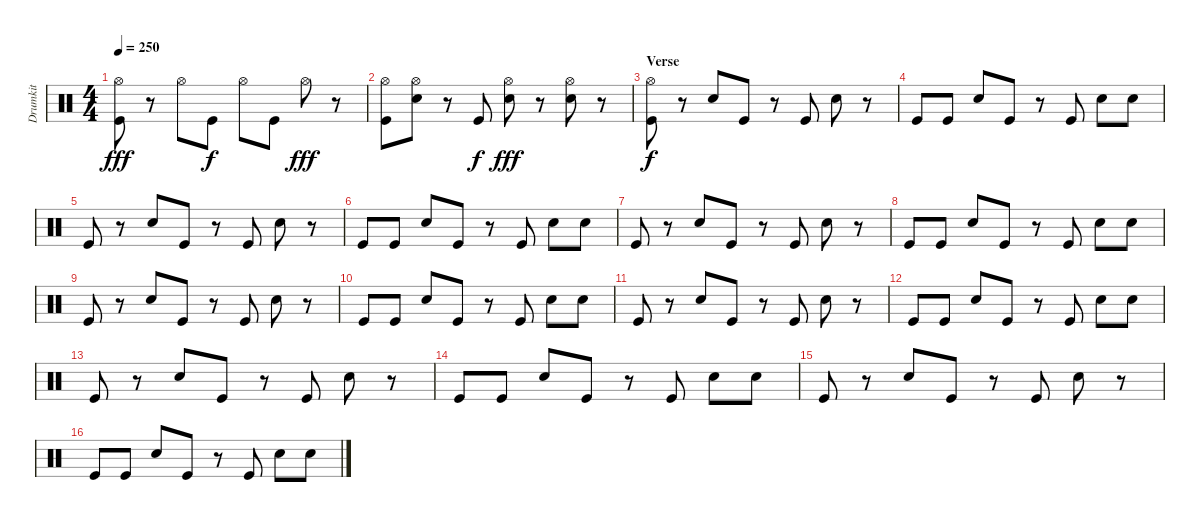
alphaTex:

\track ("Drumkit" "Drumkit") {instrument percussion}
\staff {score}
\articulation defaults
\ts (4 4)
\tempo 250
\clef neutral
\ks c
("Hi-Hat (open)" "Kick (hit)").8{dy fff} r.8 "Hi-Hat (open)".8 "Kick (hit)".8{dy f} "Hi-Hat (open)".8 "Kick (hit)".8 "Hi-Hat (open)".8{dy fff} r.8 |
("Hi-Hat (open)" "Kick (hit)").8 ("Hi-Hat (open)" "Snare (hit) 2").8 r.8 "Kick (hit)".8{dy f} ("Hi-Hat (open)" "Snare (hit) 2").8{dy fff} r.8 ("Hi-Hat (open)" "Snare (hit) 2").8 r.8 |
\section ("" "Verse")
("Hi-Hat (open)" "Kick (hit)").8{dy f} r.8 "Snare (hit) 2".8 "Kick (hit)".8 r.8 "Kick (hit)".8 "Snare (hit) 2".8 r.8 |
"Kick (hit)".8 "Kick (hit)".8 "Snare (hit) 2".8 "Kick (hit)".8 r.8 "Kick (hit)".8 "Snare (hit) 2".8 "Snare (hit) 2".8 |
"Kick (hit)".8 r.8 "Snare (hit) 2".8 "Kick (hit)".8 r.8 "Kick (hit)".8 "Snare (hit) 2".8 r.8 |
"Kick (hit)".8 "Kick (hit)".8 "Snare (hit) 2".8 "Kick (hit)".8 r.8 "Kick (hit)".8 "Snare (hit) 2".8 "Snare (hit) 2".8 |
"Kick (hit)".8 r.8 "Snare (hit) 2".8 "Kick (hit)".8 r.8 "Kick (hit)".8 "Snare (hit) 2".8 r.8 |
"Kick (hit)".8 "Kick (hit)".8 "Snare (hit) 2".8 "Kick (hit)".8 r.8 "Kick (hit)".8 "Snare (hit) 2".8 "Snare (hit) 2".8 |
"Kick (hit)".8 r.8 "Snare (hit) 2".8 "Kick (hit)".8 r.8 "Kick (hit)".8 "Snare (hit) 2".8 r.8 |
"Kick (hit)".8 "Kick (hit)".8 "Snare (hit) 2".8 "Kick (hit)".8 r.8 "Kick (hit)".8 "Snare (hit) 2".8 "Snare (hit) 2".8 |
"Kick (hit)".8 r.8 "Snare (hit) 2".8 "Kick (hit)".8 r.8 "Kick (hit)".8 "Snare (hit) 2".8 r.8 |
"Kick (hit)".8 "Kick (hit)".8 "Snare (hit) 2".8 "Kick (hit)".8 r.8 "Kick (hit)".8 "Snare (hit) 2".8 "Snare (hit) 2".8 |
"Kick (hit)".8 r.8 "Snare (hit) 2".8 "Kick (hit)".8 r.8 "Kick (hit)".8 "Snare (hit) 2".8 r.8 |
"Kick (hit)".8 "Kick (hit)".8 "Snare (hit) 2".8 "Kick (hit)".8 r.8 "Kick (hit)".8 "Snare (hit) 2".8 "Snare (hit) 2".8 |
"Kick (hit)".8 r.8 "Snare (hit) 2".8 "Kick (hit)".8 r.8 "Kick (hit)".8 "Snare (hit) 2".8 r.8 |
"Kick (hit)".8 "Kick (hit)".8 "Snare (hit) 2".8 "Kick (hit)".8 r.8 "Kick (hit)".8 "Snare (hit) 2".8 "Snare (hit) 2".8
